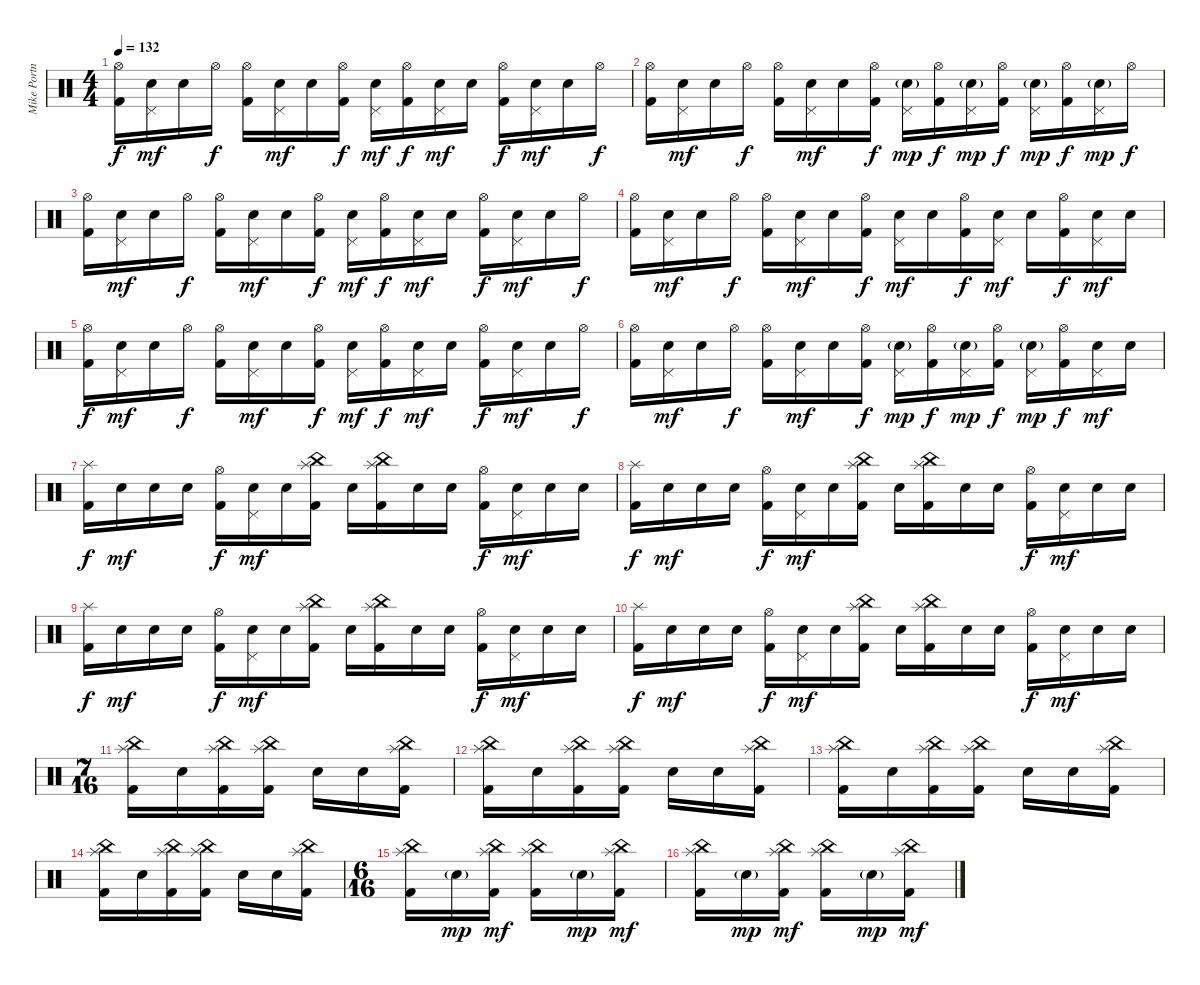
\track ("Mike Portnoy" "Mike Portn") {instrument percussion}
\staff {score}
\articulation defaults
\ts (4 4)
\tempo 132
\clef neutral
\ks c
("Hi-Hat (open)" "Kick (hit) 2").16{dy f} ("Pedal Hi-Hat (hit)" "Electric Snare (hit)").16{dy mf} "Electric Snare (hit)".16 "Hi-Hat (open)".16{dy f} ("Hi-Hat (open)" "Kick (hit) 2").16 ("Pedal Hi-Hat (hit)" "Electric Snare (hit)").16{dy mf} "Electric Snare (hit)".16 ("Hi-Hat (open)" "Kick (hit) 2").16{dy f} ("Pedal Hi-Hat (hit)" "Electric Snare (hit)").16{dy mf} ("Hi-Hat (open)" "Kick (hit) 2").16{dy f} ("Pedal Hi-Hat (hit)" "Electric Snare (hit)").16{dy mf} "Electric Snare (hit)".16 ("Hi-Hat (open)" "Kick (hit) 2").16{dy f} ("Pedal Hi-Hat (hit)" "Electric Snare (hit)").16{dy mf} "Electric Snare (hit)".16 "Hi-Hat (open)".16{dy f} |
("Hi-Hat (open)" "Kick (hit) 2").16 ("Pedal Hi-Hat (hit)" "Electric Snare (hit)").16{dy mf} "Electric Snare (hit)".16 "Hi-Hat (open)".16{dy f} ("Hi-Hat (open)" "Kick (hit) 2").16 ("Pedal Hi-Hat (hit)" "Electric Snare (hit)").16{dy mf} "Electric Snare (hit)".16 ("Hi-Hat (open)" "Kick (hit) 2").16{dy f} ("Pedal Hi-Hat (hit)" "Electric Snare (hit)"{g}).16{dy mp} ("Hi-Hat (open)" "Kick (hit) 2").16{dy f} ("Pedal Hi-Hat (hit)" "Electric Snare (hit)"{g}).16{dy mp} ("Hi-Hat (open)" "Kick (hit) 2").16{dy f} ("Pedal Hi-Hat (hit)" "Electric Snare (hit)"{g}).16{dy mp} ("Hi-Hat (open)" "Kick (hit) 2").16{dy f} ("Pedal Hi-Hat (hit)" "Electric Snare (hit)"{g}).16{dy mp} "Hi-Hat (open)".16{dy f} |
("Hi-Hat (open)" "Kick (hit) 2").16 ("Pedal Hi-Hat (hit)" "Electric Snare (hit)").16{dy mf} "Electric Snare (hit)".16 "Hi-Hat (open)".16{dy f} ("Hi-Hat (open)" "Kick (hit) 2").16 ("Pedal Hi-Hat (hit)" "Electric Snare (hit)").16{dy mf} "Electric Snare (hit)".16 ("Hi-Hat (open)" "Kick (hit) 2").16{dy f} ("Pedal Hi-Hat (hit)" "Electric Snare (hit)").16{dy mf} ("Hi-Hat (open)" "Kick (hit) 2").16{dy f} ("Pedal Hi-Hat (hit)" "Electric Snare (hit)").16{dy mf} "Electric Snare (hit)".16 ("Hi-Hat (open)" "Kick (hit) 2").16{dy f} ("Pedal Hi-Hat (hit)" "Electric Snare (hit)").16{dy mf} "Electric Snare (hit)".16 "Hi-Hat (open)".16{dy f} |
("Hi-Hat (open)" "Kick (hit) 2").16 ("Pedal Hi-Hat (hit)" "Electric Snare (hit)").16{dy mf} "Electric Snare (hit)".16 "Hi-Hat (open)".16{dy f} ("Hi-Hat (open)" "Kick (hit) 2").16 ("Pedal Hi-Hat (hit)" "Electric Snare (hit)").16{dy mf} "Electric Snare (hit)".16 ("Hi-Hat (open)" "Kick (hit) 2").16{dy f} ("Pedal Hi-Hat (hit)" "Electric Snare (hit)").16{dy mf} "Electric Snare (hit)".16 ("Hi-Hat (open)" "Kick (hit) 2").16{dy f} ("Pedal Hi-Hat (hit)" "Electric Snare (hit)").16{dy mf} "Electric Snare (hit)".16 ("Hi-Hat (open)" "Kick (hit) 2").16{dy f} ("Pedal Hi-Hat (hit)" "Electric Snare (hit)").16{dy mf} "Electric Snare (hit)".16 |
("Hi-Hat (open)" "Kick (hit) 2").16{dy f} ("Pedal Hi-Hat (hit)" "Electric Snare (hit)").16{dy mf} "Electric Snare (hit)".16 "Hi-Hat (open)".16{dy f} ("Hi-Hat (open)" "Kick (hit) 2").16 ("Pedal Hi-Hat (hit)" "Electric Snare (hit)").16{dy mf} "Electric Snare (hit)".16 ("Hi-Hat (open)" "Kick (hit) 2").16{dy f} ("Pedal Hi-Hat (hit)" "Electric Snare (hit)").16{dy mf} ("Hi-Hat (open)" "Kick (hit) 2").16{dy f} ("Pedal Hi-Hat (hit)" "Electric Snare (hit)").16{dy mf} "Electric Snare (hit)".16 ("Hi-Hat (open)" "Kick (hit) 2").16{dy f} ("Pedal Hi-Hat (hit)" "Electric Snare (hit)").16{dy mf} "Electric Snare (hit)".16 "Hi-Hat (open)".16{dy f} |
("Hi-Hat (open)" "Kick (hit) 2").16 ("Pedal Hi-Hat (hit)" "Electric Snare (hit)").16{dy mf} "Electric Snare (hit)".16 "Hi-Hat (open)".16{dy f} ("Hi-Hat (open)" "Kick (hit) 2").16 ("Pedal Hi-Hat (hit)" "Electric Snare (hit)").16{dy mf} "Electric Snare (hit)".16 ("Hi-Hat (open)" "Kick (hit) 2").16{dy f} ("Pedal Hi-Hat (hit)" "Electric Snare (hit)"{g}).16{dy mp} ("Hi-Hat (open)" "Kick (hit) 2").16{dy f} ("Pedal Hi-Hat (hit)" "Electric Snare (hit)"{g}).16{dy mp} ("Hi-Hat (open)" "Kick (hit) 2").16{dy f} ("Pedal Hi-Hat (hit)" "Electric Snare (hit)"{g}).16{dy mp} ("Hi-Hat (open)" "Kick (hit) 2").16{dy f} ("Pedal Hi-Hat (hit)" "Electric Snare (hit)").16{dy mf} "Electric Snare (hit)".16 |
("Splash (hit)" "Kick (hit) 2").16{dy f} "Electric Snare (hit)".16{dy mf} "Electric Snare (hit)".16 "Electric Snare (hit)".16 ("Hi-Hat (open)" "Kick (hit) 2").16{dy f} ("Pedal Hi-Hat (hit)" "Electric Snare (hit)").16{dy mf} "Electric Snare (hit)".16 ("China (hit)" "Splash (hit)" "Kick (hit) 2").16 "Electric Snare (hit)".16 ("China (hit)" "Splash (hit)" "Kick (hit) 2").16 "Electric Snare (hit)".16 "Electric Snare (hit)".16 ("Hi-Hat (open)" "Kick (hit) 2").16{dy f} ("Pedal Hi-Hat (hit)" "Electric Snare (hit)").16{dy mf} "Electric Snare (hit)".16 "Electric Snare (hit)".16 |
("Splash (hit)" "Kick (hit) 2").16{dy f} "Electric Snare (hit)".16{dy mf} "Electric Snare (hit)".16 "Electric Snare (hit)".16 ("Hi-Hat (open)" "Kick (hit) 2").16{dy f} ("Pedal Hi-Hat (hit)" "Electric Snare (hit)").16{dy mf} "Electric Snare (hit)".16 ("China (hit)" "Splash (hit)" "Kick (hit) 2").16 "Electric Snare (hit)".16 ("China (hit)" "Splash (hit)" "Kick (hit) 2").16 "Electric Snare (hit)".16 "Electric Snare (hit)".16 ("Hi-Hat (open)" "Kick (hit) 2").16{dy f} ("Pedal Hi-Hat (hit)" "Electric Snare (hit)").16{dy mf} "Electric Snare (hit)".16 "Electric Snare (hit)".16 |
("Splash (hit)" "Kick (hit) 2").16{dy f} "Electric Snare (hit)".16{dy mf} "Electric Snare (hit)".16 "Electric Snare (hit)".16 ("Hi-Hat (open)" "Kick (hit) 2").16{dy f} ("Pedal Hi-Hat (hit)" "Electric Snare (hit)").16{dy mf} "Electric Snare (hit)".16 ("China (hit)" "Splash (hit)" "Kick (hit) 2").16 "Electric Snare (hit)".16 ("China (hit)" "Splash (hit)" "Kick (hit) 2").16 "Electric Snare (hit)".16 "Electric Snare (hit)".16 ("Hi-Hat (open)" "Kick (hit) 2").16{dy f} ("Pedal Hi-Hat (hit)" "Electric Snare (hit)").16{dy mf} "Electric Snare (hit)".16 "Electric Snare (hit)".16 |
("Splash (hit)" "Kick (hit) 2").16{dy f} "Electric Snare (hit)".16{dy mf} "Electric Snare (hit)".16 "Electric Snare (hit)".16 ("Hi-Hat (open)" "Kick (hit) 2").16{dy f} ("Pedal Hi-Hat (hit)" "Electric Snare (hit)").16{dy mf} "Electric Snare (hit)".16 ("China (hit)" "Splash (hit)" "Kick (hit) 2").16 "Electric Snare (hit)".16 ("China (hit)" "Splash (hit)" "Kick (hit) 2").16 "Electric Snare (hit)".16 "Electric Snare (hit)".16 ("Hi-Hat (open)" "Kick (hit) 2").16{dy f} ("Pedal Hi-Hat (hit)" "Electric Snare (hit)").16{dy mf} "Electric Snare (hit)".16 "Electric Snare (hit)".16 |
\ts (7 16)
("China (hit)" "Splash (hit)" "Kick (hit) 2").16 "Electric Snare (hit)".16 ("China (hit)" "Splash (hit)" "Kick (hit) 2").16 ("China (hit)" "Splash (hit)" "Kick (hit) 2").16 "Electric Snare (hit)".16 "Electric Snare (hit)".16 ("China (hit)" "Splash (hit)" "Kick (hit) 2").16 |
("China (hit)" "Splash (hit)" "Kick (hit) 2").16 "Electric Snare (hit)".16 ("China (hit)" "Splash (hit)" "Kick (hit) 2").16 ("China (hit)" "Splash (hit)" "Kick (hit) 2").16 "Electric Snare (hit)".16 "Electric Snare (hit)".16 ("China (hit)" "Splash (hit)" "Kick (hit) 2").16 |
("China (hit)" "Splash (hit)" "Kick (hit) 2").16 "Electric Snare (hit)".16 ("China (hit)" "Splash (hit)" "Kick (hit) 2").16 ("China (hit)" "Splash (hit)" "Kick (hit) 2").16 "Electric Snare (hit)".16 "Electric Snare (hit)".16 ("China (hit)" "Splash (hit)" "Kick (hit) 2").16 |
("China (hit)" "Splash (hit)" "Kick (hit) 2").16 "Electric Snare (hit)".16 ("China (hit)" "Splash (hit)" "Kick (hit) 2").16 ("China (hit)" "Splash (hit)" "Kick (hit) 2").16 "Electric Snare (hit)".16 "Electric Snare (hit)".16 ("China (hit)" "Splash (hit)" "Kick (hit) 2").16 |
\ts (6 16)
("Splash (hit)" "China (hit)" "Kick (hit) 2").16 "Electric Snare (hit)"{g}.16{dy mp} ("Splash (hit)" "China (hit)" "Kick (hit) 2").16{dy mf} ("Splash (hit)" "China (hit)" "Kick (hit) 2").16 "Electric Snare (hit)"{g}.16{dy mp} ("Splash (hit)" "China (hit)" "Kick (hit) 2").16{dy mf} |
("Splash (hit)" "China (hit)" "Kick (hit) 2").16 "Electric Snare (hit)"{g}.16{dy mp} ("Splash (hit)" "China (hit)" "Kick (hit) 2").16{dy mf} ("Splash (hit)" "China (hit)" "Kick (hit) 2").16 "Electric Snare (hit)"{g}.16{dy mp} ("Splash (hit)" "China (hit)" "Kick (hit) 2").16{dy mf}
